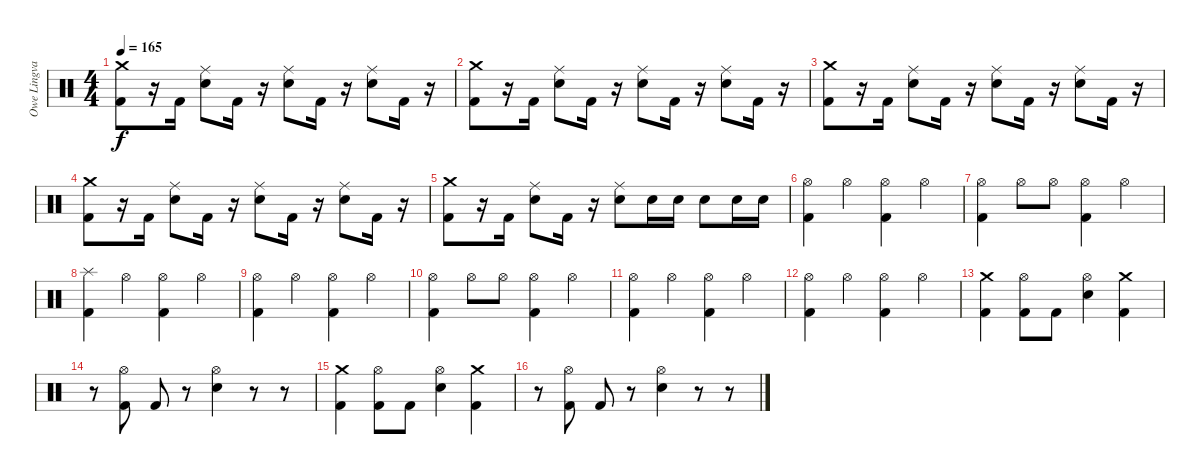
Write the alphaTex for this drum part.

\track ("Owe Lingvall" "Owe Lingva") {instrument percussion}
\staff {score}
\articulation defaults
\ts (4 4)
\tempo 165
\clef neutral
\ks c
("Crash medium (hit)" "Kick (hit) 2").8{dy f} r.16 "Kick (hit) 2".16 ("Ride (middle)" "Snare (hit) 2").8 "Kick (hit) 2".16 r.16 ("Ride (middle)" "Snare (hit) 2").8 "Kick (hit) 2".16 r.16 ("Ride (middle)" "Snare (hit) 2").8 "Kick (hit) 2".16 r.16 |
("Crash medium (hit)" "Kick (hit) 2").8 r.16 "Kick (hit) 2".16 ("Ride (middle)" "Snare (hit) 2").8 "Kick (hit) 2".16 r.16 ("Ride (middle)" "Snare (hit) 2").8 "Kick (hit) 2".16 r.16 ("Ride (middle)" "Snare (hit) 2").8 "Kick (hit) 2".16 r.16 |
("Crash medium (hit)" "Kick (hit) 2").8 r.16 "Kick (hit) 2".16 ("Ride (middle)" "Snare (hit) 2").8 "Kick (hit) 2".16 r.16 ("Ride (middle)" "Snare (hit) 2").8 "Kick (hit) 2".16 r.16 ("Ride (middle)" "Snare (hit) 2").8 "Kick (hit) 2".16 r.16 |
("Crash medium (hit)" "Kick (hit) 2").8 r.16 "Kick (hit) 2".16 ("Ride (middle)" "Snare (hit) 2").8 "Kick (hit) 2".16 r.16 ("Ride (middle)" "Snare (hit) 2").8 "Kick (hit) 2".16 r.16 ("Ride (middle)" "Snare (hit) 2").8 "Kick (hit) 2".16 r.16 |
("Crash medium (hit)" "Kick (hit) 2").8 r.16 "Kick (hit) 2".16 ("Ride (middle)" "Snare (hit) 2").8 "Kick (hit) 2".16 r.16 ("Ride (middle)" "Snare (hit) 2").8 "Snare (hit) 2".16 "Snare (hit) 2".16 "Snare (hit) 2".8 "Snare (hit) 2".16 "Snare (hit) 2".16 |
("Hi-Hat (open)" "Kick (hit) 2").4 "Hi-Hat (open)".4 ("Hi-Hat (open)" "Kick (hit) 2").4 "Hi-Hat (open)".4 |
("Hi-Hat (open)" "Kick (hit) 2").4 "Hi-Hat (open)".8 "Hi-Hat (open)".8 ("Hi-Hat (open)" "Kick (hit) 2").4 "Hi-Hat (open)".4 |
("Splash (hit)" "Kick (hit) 2").4 "Hi-Hat (open)".4 ("Hi-Hat (open)" "Kick (hit) 2").4 "Hi-Hat (open)".4 |
("Hi-Hat (open)" "Kick (hit) 2").4 "Hi-Hat (open)".4 ("Hi-Hat (open)" "Kick (hit) 2").4 "Hi-Hat (open)".4 |
("Hi-Hat (open)" "Kick (hit) 2").4 "Hi-Hat (open)".8 "Hi-Hat (open)".8 ("Hi-Hat (open)" "Kick (hit) 2").4 "Hi-Hat (open)".4 |
("Hi-Hat (open)" "Kick (hit) 2").4 "Hi-Hat (open)".4 ("Hi-Hat (open)" "Kick (hit) 2").4 "Hi-Hat (open)".4 |
("Hi-Hat (open)" "Kick (hit) 2").4 "Hi-Hat (open)".4 ("Hi-Hat (open)" "Kick (hit) 2").4 "Hi-Hat (open)".4 |
("Crash medium (hit)" "Kick (hit) 2").4 ("Hi-Hat (open)" "Kick (hit) 2").8 "Kick (hit) 2".8 ("Hi-Hat (open)" "Snare (hit) 2").4 ("Crash medium (hit)" "Kick (hit) 2").4 |
r.8 ("Hi-Hat (open)" "Kick (hit) 2").8 "Kick (hit) 2".8 r.8 ("Hi-Hat (open)" "Snare (hit) 2").4 r.8 r.8 |
("Crash medium (hit)" "Kick (hit) 2").4 ("Hi-Hat (open)" "Kick (hit) 2").8 "Kick (hit) 2".8 ("Hi-Hat (open)" "Snare (hit) 2").4 ("Crash medium (hit)" "Kick (hit) 2").4 |
r.8 ("Hi-Hat (open)" "Kick (hit) 2").8 "Kick (hit) 2".8 r.8 ("Hi-Hat (open)" "Snare (hit) 2").4 r.8 r.8
